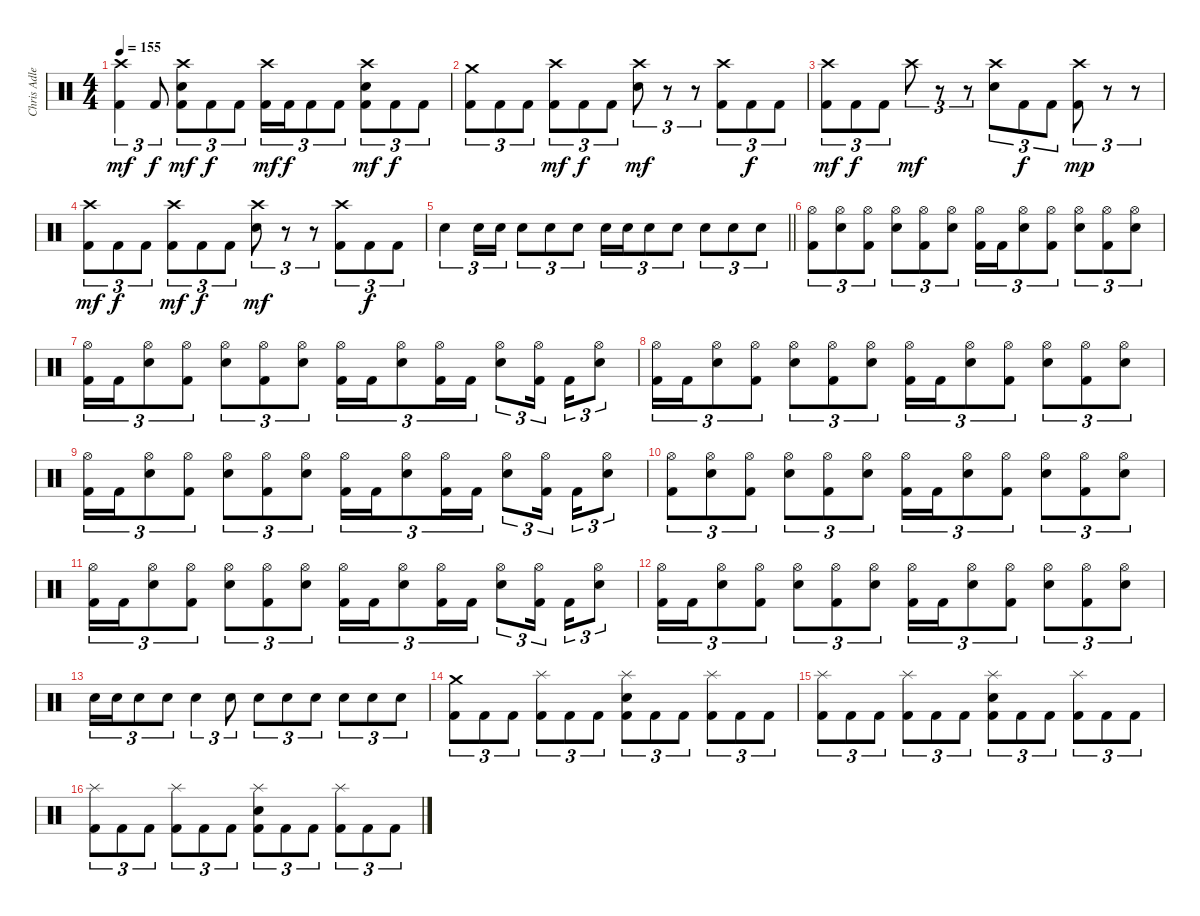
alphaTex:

\track ("Chris Adler" "Chris Adle") {instrument percussion}
\staff {score}
\articulation defaults
\ts (4 4)
\tempo 155
\clef neutral
\ks c
("Crash high (hit)" "Kick (hit) 2").4{tu (3 2) dy mf} "Kick (hit) 2".8{tu (3 2) dy f} ("Crash high (hit)" "Snare (hit) 2" "Kick (hit) 2").8{tu (3 2) dy mf} "Kick (hit) 2".8{tu (3 2) dy f} "Kick (hit) 2".8{tu (3 2)} ("Crash high (hit)" "Kick (hit) 2").16{tu (3 2) dy mf} "Kick (hit) 2".16{tu (3 2) dy f} "Kick (hit) 2".8{tu (3 2)} "Kick (hit) 2".8{tu (3 2)} ("Crash high (hit)" "Snare (hit) 2" "Kick (hit) 2").8{tu (3 2) dy mf} "Kick (hit) 2".8{tu (3 2) dy f} "Kick (hit) 2".8{tu (3 2)} |
("Crash medium (hit)" "Kick (hit) 2").8{tu (3 2)} "Kick (hit) 2".8{tu (3 2)} "Kick (hit) 2".8{tu (3 2)} ("Crash high (hit)" "Kick (hit) 2").8{tu (3 2) dy mf} "Kick (hit) 2".8{tu (3 2) dy f} "Kick (hit) 2".8{tu (3 2)} ("Crash high (hit)" "Snare (hit) 2").8{tu (3 2) dy mf} r.8{tu (3 2)} r.8{tu (3 2)} ("Crash high (hit)" "Kick (hit) 2").8{tu (3 2)} "Kick (hit) 2".8{tu (3 2) dy f} "Kick (hit) 2".8{tu (3 2)} |
("Crash high (hit)" "Kick (hit) 2").8{tu (3 2) dy mf} "Kick (hit) 2".8{tu (3 2) dy f} "Kick (hit) 2".8{tu (3 2)} "Crash high (hit)".8{tu (3 2) dy mf} r.8{tu (3 2)} r.8{tu (3 2)} ("Crash high (hit)" "Snare (hit) 2").8{tu (3 2)} "Kick (hit) 2".8{tu (3 2) dy f} "Kick (hit) 2".8{tu (3 2)} ("Crash high (hit)" "Kick (hit) 2").8{tu (3 2) dy mp} r.8{tu (3 2)} r.8{tu (3 2)} |
("Crash high (hit)" "Kick (hit) 2").8{tu (3 2) dy mf} "Kick (hit) 2".8{tu (3 2) dy f} "Kick (hit) 2".8{tu (3 2)} ("Crash high (hit)" "Kick (hit) 2").8{tu (3 2) dy mf} "Kick (hit) 2".8{tu (3 2) dy f} "Kick (hit) 2".8{tu (3 2)} ("Crash high (hit)" "Snare (hit) 2").8{tu (3 2) dy mf} r.8{tu (3 2)} r.8{tu (3 2)} ("Crash high (hit)" "Kick (hit) 2").8{tu (3 2)} "Kick (hit) 2".8{tu (3 2) dy f} "Kick (hit) 2".8{tu (3 2)} |
\barLineRight lightlight "Electric Snare (hit)".4{tu (3 2)} "Electric Snare (hit)".16{tu (3 2)} "Electric Snare (hit)".16{tu (3 2)} "Electric Snare (hit)".8{tu (3 2)} "Electric Snare (hit)".8{tu (3 2)} "Electric Snare (hit)".8{tu (3 2)} "Electric Snare (hit)".16{tu (3 2)} "Electric Snare (hit)".16{tu (3 2)} "Electric Snare (hit)".8{tu (3 2)} "Electric Snare (hit)".8{tu (3 2)} "Electric Snare (hit)".8{tu (3 2)} "Electric Snare (hit)".8{tu (3 2)} "Electric Snare (hit)".8{tu (3 2)}
|
("Hi-Hat (open)" "Kick (hit) 2").8{tu (3 2)} ("Hi-Hat (open)" "Snare (hit) 2").8{tu (3 2)} ("Hi-Hat (open)" "Kick (hit) 2").8{tu (3 2)} ("Hi-Hat (open)" "Snare (hit) 2").8{tu (3 2)} ("Hi-Hat (open)" "Kick (hit) 2").8{tu (3 2)} ("Hi-Hat (open)" "Snare (hit) 2").8{tu (3 2)} ("Hi-Hat (open)" "Kick (hit) 2").16{tu (3 2)} "Kick (hit) 2".16{tu (3 2)} ("Hi-Hat (open)" "Snare (hit) 2").8{tu (3 2)} ("Hi-Hat (open)" "Kick (hit) 2").8{tu (3 2)} ("Hi-Hat (open)" "Snare (hit) 2").8{tu (3 2)} ("Hi-Hat (open)" "Kick (hit) 2").8{tu (3 2)} ("Hi-Hat (open)" "Snare (hit) 2").8{tu (3 2)} |
("Hi-Hat (open)" "Kick (hit) 2").16{tu (3 2)} "Kick (hit) 2".16{tu (3 2)} ("Hi-Hat (open)" "Snare (hit) 2").8{tu (3 2)} ("Hi-Hat (open)" "Kick (hit) 2").8{tu (3 2)} ("Hi-Hat (open)" "Snare (hit) 2").8{tu (3 2)} ("Hi-Hat (open)" "Kick (hit) 2").8{tu (3 2)} ("Hi-Hat (open)" "Snare (hit) 2").8{tu (3 2)} ("Hi-Hat (open)" "Kick (hit) 2").16{tu (3 2)} "Kick (hit) 2".16{tu (3 2)} ("Hi-Hat (open)" "Snare (hit) 2").8{tu (3 2)} ("Hi-Hat (open)" "Kick (hit) 2").16{tu (3 2)} "Kick (hit) 2".16{tu (3 2)} ("Hi-Hat (open)" "Snare (hit) 2").8{tu (3 2)} ("Hi-Hat (open)" "Kick (hit) 2").16{tu (3 2) beam splitsecondary} "Kick (hit) 2".16{tu (3 2)} ("Hi-Hat (open)" "Snare (hit) 2").8{tu (3 2)} |
("Hi-Hat (open)" "Kick (hit) 2").16{tu (3 2)} "Kick (hit) 2".16{tu (3 2)} ("Hi-Hat (open)" "Snare (hit) 2").8{tu (3 2)} ("Hi-Hat (open)" "Kick (hit) 2").8{tu (3 2)} ("Hi-Hat (open)" "Snare (hit) 2").8{tu (3 2)} ("Hi-Hat (open)" "Kick (hit) 2").8{tu (3 2)} ("Hi-Hat (open)" "Snare (hit) 2").8{tu (3 2)} ("Hi-Hat (open)" "Kick (hit) 2").16{tu (3 2)} "Kick (hit) 2".16{tu (3 2)} ("Hi-Hat (open)" "Snare (hit) 2").8{tu (3 2)} ("Hi-Hat (open)" "Kick (hit) 2").8{tu (3 2)} ("Hi-Hat (open)" "Snare (hit) 2").8{tu (3 2)} ("Hi-Hat (open)" "Kick (hit) 2").8{tu (3 2)} ("Hi-Hat (open)" "Snare (hit) 2").8{tu (3 2)} |
("Hi-Hat (open)" "Kick (hit) 2").16{tu (3 2)} "Kick (hit) 2".16{tu (3 2)} ("Hi-Hat (open)" "Snare (hit) 2").8{tu (3 2)} ("Hi-Hat (open)" "Kick (hit) 2").8{tu (3 2)} ("Hi-Hat (open)" "Snare (hit) 2").8{tu (3 2)} ("Hi-Hat (open)" "Kick (hit) 2").8{tu (3 2)} ("Hi-Hat (open)" "Snare (hit) 2").8{tu (3 2)} ("Hi-Hat (open)" "Kick (hit) 2").16{tu (3 2)} "Kick (hit) 2".16{tu (3 2)} ("Hi-Hat (open)" "Snare (hit) 2").8{tu (3 2)} ("Hi-Hat (open)" "Kick (hit) 2").16{tu (3 2)} "Kick (hit) 2".16{tu (3 2)} ("Hi-Hat (open)" "Snare (hit) 2").8{tu (3 2)} ("Hi-Hat (open)" "Kick (hit) 2").16{tu (3 2) beam splitsecondary} "Kick (hit) 2".16{tu (3 2)} ("Hi-Hat (open)" "Snare (hit) 2").8{tu (3 2)} |
("Hi-Hat (open)" "Kick (hit) 2").8{tu (3 2)} ("Hi-Hat (open)" "Snare (hit) 2").8{tu (3 2)} ("Hi-Hat (open)" "Kick (hit) 2").8{tu (3 2)} ("Hi-Hat (open)" "Snare (hit) 2").8{tu (3 2)} ("Hi-Hat (open)" "Kick (hit) 2").8{tu (3 2)} ("Hi-Hat (open)" "Snare (hit) 2").8{tu (3 2)} ("Hi-Hat (open)" "Kick (hit) 2").16{tu (3 2)} "Kick (hit) 2".16{tu (3 2)} ("Hi-Hat (open)" "Snare (hit) 2").8{tu (3 2)} ("Hi-Hat (open)" "Kick (hit) 2").8{tu (3 2)} ("Hi-Hat (open)" "Snare (hit) 2").8{tu (3 2)} ("Hi-Hat (open)" "Kick (hit) 2").8{tu (3 2)} ("Hi-Hat (open)" "Snare (hit) 2").8{tu (3 2)} |
("Hi-Hat (open)" "Kick (hit) 2").16{tu (3 2)} "Kick (hit) 2".16{tu (3 2)} ("Hi-Hat (open)" "Snare (hit) 2").8{tu (3 2)} ("Hi-Hat (open)" "Kick (hit) 2").8{tu (3 2)} ("Hi-Hat (open)" "Snare (hit) 2").8{tu (3 2)} ("Hi-Hat (open)" "Kick (hit) 2").8{tu (3 2)} ("Hi-Hat (open)" "Snare (hit) 2").8{tu (3 2)} ("Hi-Hat (open)" "Kick (hit) 2").16{tu (3 2)} "Kick (hit) 2".16{tu (3 2)} ("Hi-Hat (open)" "Snare (hit) 2").8{tu (3 2)} ("Hi-Hat (open)" "Kick (hit) 2").16{tu (3 2)} "Kick (hit) 2".16{tu (3 2)} ("Hi-Hat (open)" "Snare (hit) 2").8{tu (3 2)} ("Hi-Hat (open)" "Kick (hit) 2").16{tu (3 2) beam splitsecondary} "Kick (hit) 2".16{tu (3 2)} ("Hi-Hat (open)" "Snare (hit) 2").8{tu (3 2)} |
("Hi-Hat (open)" "Kick (hit) 2").16{tu (3 2)} "Kick (hit) 2".16{tu (3 2)} ("Hi-Hat (open)" "Snare (hit) 2").8{tu (3 2)} ("Hi-Hat (open)" "Kick (hit) 2").8{tu (3 2)} ("Hi-Hat (open)" "Snare (hit) 2").8{tu (3 2)} ("Hi-Hat (open)" "Kick (hit) 2").8{tu (3 2)} ("Hi-Hat (open)" "Snare (hit) 2").8{tu (3 2)} ("Hi-Hat (open)" "Kick (hit) 2").16{tu (3 2)} "Kick (hit) 2".16{tu (3 2)} ("Hi-Hat (open)" "Snare (hit) 2").8{tu (3 2)} ("Hi-Hat (open)" "Kick (hit) 2").8{tu (3 2)} ("Hi-Hat (open)" "Snare (hit) 2").8{tu (3 2)} ("Hi-Hat (open)" "Kick (hit) 2").8{tu (3 2)} ("Hi-Hat (open)" "Snare (hit) 2").8{tu (3 2)} |
"Electric Snare (hit)".16{tu (3 2)} "Electric Snare (hit)".16{tu (3 2)} "Electric Snare (hit)".8{tu (3 2)} "Electric Snare (hit)".8{tu (3 2)} "Electric Snare (hit)".4{tu (3 2)} "Electric Snare (hit)".8{tu (3 2)} "Electric Snare (hit)".8{tu (3 2)} "Electric Snare (hit)".8{tu (3 2)} "Electric Snare (hit)".8{tu (3 2)} "Electric Snare (hit)".8{tu (3 2)} "Electric Snare (hit)".8{tu (3 2)} "Electric Snare (hit)".8{tu (3 2)} |
("Crash medium (hit)" "Kick (hit) 2").8{tu (3 2)} "Kick (hit) 2".8{tu (3 2)} "Kick (hit) 2".8{tu (3 2)} ("Splash (hit)" "Kick (hit) 2").8{tu (3 2)} "Kick (hit) 2".8{tu (3 2)} "Kick (hit) 2".8{tu (3 2)} ("Splash (hit)" "Snare (hit) 2" "Kick (hit) 2").8{tu (3 2)} "Kick (hit) 2".8{tu (3 2)} "Kick (hit) 2".8{tu (3 2)} ("Splash (hit)" "Kick (hit) 2").8{tu (3 2)} "Kick (hit) 2".8{tu (3 2)} "Kick (hit) 2".8{tu (3 2)} |
("Splash (hit)" "Kick (hit) 2").8{tu (3 2)} "Kick (hit) 2".8{tu (3 2)} "Kick (hit) 2".8{tu (3 2)} ("Splash (hit)" "Kick (hit) 2").8{tu (3 2)} "Kick (hit) 2".8{tu (3 2)} "Kick (hit) 2".8{tu (3 2)} ("Splash (hit)" "Snare (hit) 2" "Kick (hit) 2").8{tu (3 2)} "Kick (hit) 2".8{tu (3 2)} "Kick (hit) 2".8{tu (3 2)} ("Splash (hit)" "Kick (hit) 2").8{tu (3 2)} "Kick (hit) 2".8{tu (3 2)} "Kick (hit) 2".8{tu (3 2)} |
("Splash (hit)" "Kick (hit) 2").8{tu (3 2)} "Kick (hit) 2".8{tu (3 2)} "Kick (hit) 2".8{tu (3 2)} ("Splash (hit)" "Kick (hit) 2").8{tu (3 2)} "Kick (hit) 2".8{tu (3 2)} "Kick (hit) 2".8{tu (3 2)} ("Splash (hit)" "Snare (hit) 2" "Kick (hit) 2").8{tu (3 2)} "Kick (hit) 2".8{tu (3 2)} "Kick (hit) 2".8{tu (3 2)} ("Splash (hit)" "Kick (hit) 2").8{tu (3 2)} "Kick (hit) 2".8{tu (3 2)} "Kick (hit) 2".8{tu (3 2)}
